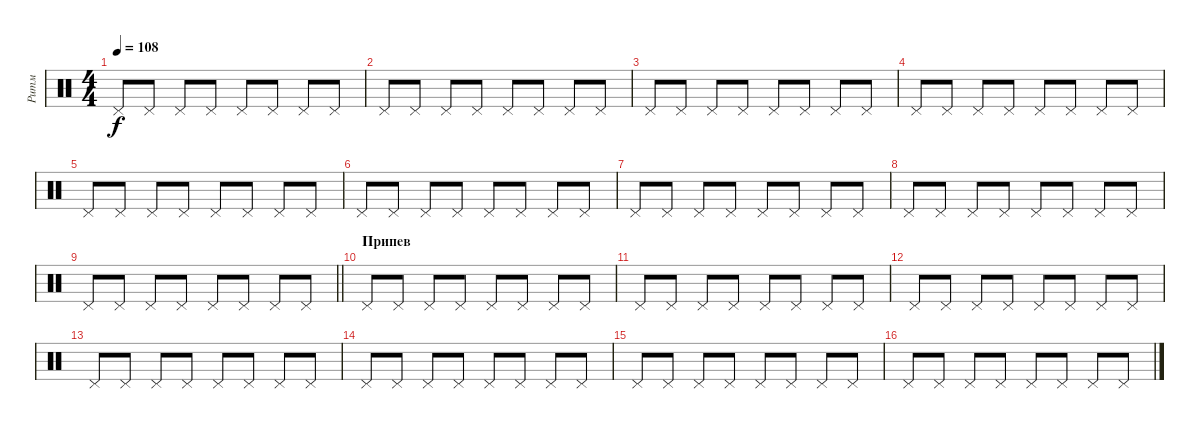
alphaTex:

\track ("Ритм" "Ритм") {instrument percussion}
\staff {score}
\articulation defaults
\ts (4 4)
\tempo 108
\clef neutral
\ks c "Pedal Hi-Hat (hit)".8{dy f} "Pedal Hi-Hat (hit)".8 "Pedal Hi-Hat (hit)".8 "Pedal Hi-Hat (hit)".8 "Pedal Hi-Hat (hit)".8 "Pedal Hi-Hat (hit)".8 "Pedal Hi-Hat (hit)".8 "Pedal Hi-Hat (hit)".8
|
"Pedal Hi-Hat (hit)".8 "Pedal Hi-Hat (hit)".8 "Pedal Hi-Hat (hit)".8 "Pedal Hi-Hat (hit)".8 "Pedal Hi-Hat (hit)".8 "Pedal Hi-Hat (hit)".8 "Pedal Hi-Hat (hit)".8 "Pedal Hi-Hat (hit)".8 |
"Pedal Hi-Hat (hit)".8 "Pedal Hi-Hat (hit)".8 "Pedal Hi-Hat (hit)".8 "Pedal Hi-Hat (hit)".8 "Pedal Hi-Hat (hit)".8 "Pedal Hi-Hat (hit)".8 "Pedal Hi-Hat (hit)".8 "Pedal Hi-Hat (hit)".8 |
"Pedal Hi-Hat (hit)".8 "Pedal Hi-Hat (hit)".8 "Pedal Hi-Hat (hit)".8 "Pedal Hi-Hat (hit)".8 "Pedal Hi-Hat (hit)".8 "Pedal Hi-Hat (hit)".8 "Pedal Hi-Hat (hit)".8 "Pedal Hi-Hat (hit)".8 |
"Pedal Hi-Hat (hit)".8 "Pedal Hi-Hat (hit)".8 "Pedal Hi-Hat (hit)".8 "Pedal Hi-Hat (hit)".8 "Pedal Hi-Hat (hit)".8 "Pedal Hi-Hat (hit)".8 "Pedal Hi-Hat (hit)".8 "Pedal Hi-Hat (hit)".8 |
"Pedal Hi-Hat (hit)".8 "Pedal Hi-Hat (hit)".8 "Pedal Hi-Hat (hit)".8 "Pedal Hi-Hat (hit)".8 "Pedal Hi-Hat (hit)".8 "Pedal Hi-Hat (hit)".8 "Pedal Hi-Hat (hit)".8 "Pedal Hi-Hat (hit)".8 |
"Pedal Hi-Hat (hit)".8 "Pedal Hi-Hat (hit)".8 "Pedal Hi-Hat (hit)".8 "Pedal Hi-Hat (hit)".8 "Pedal Hi-Hat (hit)".8 "Pedal Hi-Hat (hit)".8 "Pedal Hi-Hat (hit)".8 "Pedal Hi-Hat (hit)".8 |
"Pedal Hi-Hat (hit)".8 "Pedal Hi-Hat (hit)".8 "Pedal Hi-Hat (hit)".8 "Pedal Hi-Hat (hit)".8 "Pedal Hi-Hat (hit)".8 "Pedal Hi-Hat (hit)".8 "Pedal Hi-Hat (hit)".8 "Pedal Hi-Hat (hit)".8 |
\barLineRight lightlight "Pedal Hi-Hat (hit)".8 "Pedal Hi-Hat (hit)".8 "Pedal Hi-Hat (hit)".8 "Pedal Hi-Hat (hit)".8 "Pedal Hi-Hat (hit)".8 "Pedal Hi-Hat (hit)".8 "Pedal Hi-Hat (hit)".8 "Pedal Hi-Hat (hit)".8
|
\section ("" "Припев")
"Pedal Hi-Hat (hit)".8 "Pedal Hi-Hat (hit)".8 "Pedal Hi-Hat (hit)".8 "Pedal Hi-Hat (hit)".8 "Pedal Hi-Hat (hit)".8 "Pedal Hi-Hat (hit)".8 "Pedal Hi-Hat (hit)".8 "Pedal Hi-Hat (hit)".8 |
"Pedal Hi-Hat (hit)".8 "Pedal Hi-Hat (hit)".8 "Pedal Hi-Hat (hit)".8 "Pedal Hi-Hat (hit)".8 "Pedal Hi-Hat (hit)".8 "Pedal Hi-Hat (hit)".8 "Pedal Hi-Hat (hit)".8 "Pedal Hi-Hat (hit)".8 |
"Pedal Hi-Hat (hit)".8 "Pedal Hi-Hat (hit)".8 "Pedal Hi-Hat (hit)".8 "Pedal Hi-Hat (hit)".8 "Pedal Hi-Hat (hit)".8 "Pedal Hi-Hat (hit)".8 "Pedal Hi-Hat (hit)".8 "Pedal Hi-Hat (hit)".8 |
"Pedal Hi-Hat (hit)".8 "Pedal Hi-Hat (hit)".8 "Pedal Hi-Hat (hit)".8 "Pedal Hi-Hat (hit)".8 "Pedal Hi-Hat (hit)".8 "Pedal Hi-Hat (hit)".8 "Pedal Hi-Hat (hit)".8 "Pedal Hi-Hat (hit)".8 |
"Pedal Hi-Hat (hit)".8 "Pedal Hi-Hat (hit)".8 "Pedal Hi-Hat (hit)".8 "Pedal Hi-Hat (hit)".8 "Pedal Hi-Hat (hit)".8 "Pedal Hi-Hat (hit)".8 "Pedal Hi-Hat (hit)".8 "Pedal Hi-Hat (hit)".8 |
"Pedal Hi-Hat (hit)".8 "Pedal Hi-Hat (hit)".8 "Pedal Hi-Hat (hit)".8 "Pedal Hi-Hat (hit)".8 "Pedal Hi-Hat (hit)".8 "Pedal Hi-Hat (hit)".8 "Pedal Hi-Hat (hit)".8 "Pedal Hi-Hat (hit)".8 |
"Pedal Hi-Hat (hit)".8 "Pedal Hi-Hat (hit)".8 "Pedal Hi-Hat (hit)".8 "Pedal Hi-Hat (hit)".8 "Pedal Hi-Hat (hit)".8 "Pedal Hi-Hat (hit)".8 "Pedal Hi-Hat (hit)".8 "Pedal Hi-Hat (hit)".8
